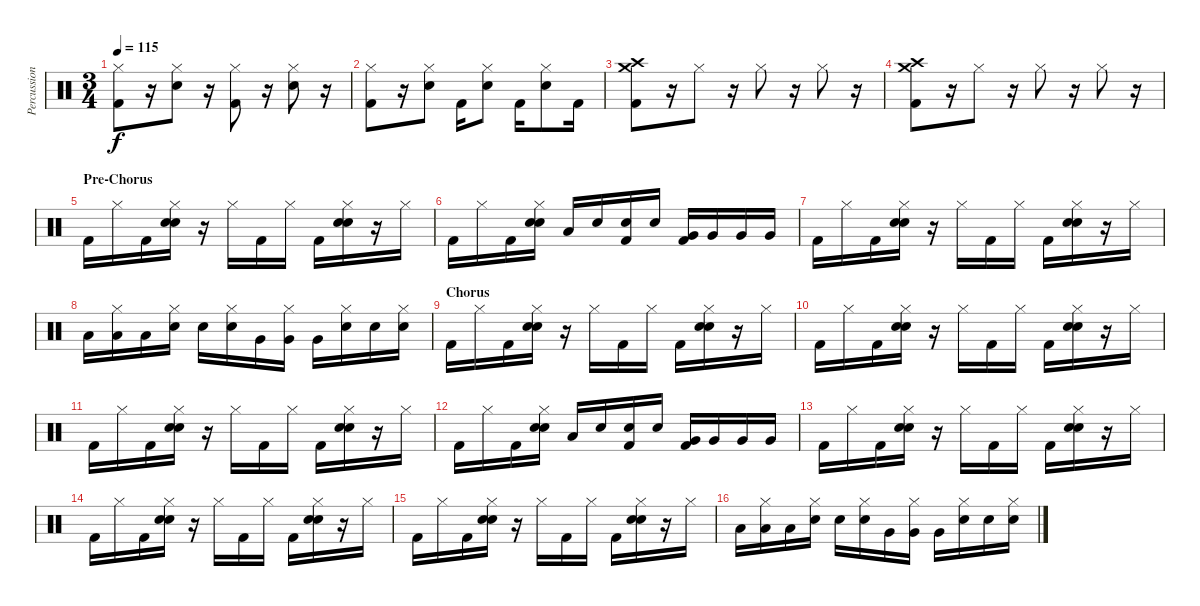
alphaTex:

\track ("Percussion" "Percussion") {instrument percussion}
\staff {score}
\articulation defaults
\ts (3 4)
\tempo 115
\clef neutral
\ks c
("Hi-Hat (closed)" "Kick (hit) 2").8{dy f} r.16 ("Hi-Hat (closed)" "Snare (hit) 2").8 r.16 ("Hi-Hat (closed)" "Kick (hit) 2").8 r.16 ("Hi-Hat (closed)" "Snare (hit) 2").8 r.16 |
("Hi-Hat (closed)" "Kick (hit) 2").8 r.16 ("Hi-Hat (closed)" "Snare (hit) 2").8 "Kick (hit) 2".16 ("Hi-Hat (closed)" "Snare (hit) 2").8 "Kick (hit) 2".16 ("Hi-Hat (closed)" "Snare (hit) 2").8 "Kick (hit) 2".16 |
("Crash medium (hit)" "Crash high (hit)" "Kick (hit) 2").8 r.16 "Hi-Hat (closed)".8 r.16 "Hi-Hat (closed)".8 r.16 "Hi-Hat (closed)".8 r.16 |
("Crash medium (hit)" "Crash high (hit)" "Kick (hit) 2").8 r.16 "Hi-Hat (closed)".8 r.16 "Hi-Hat (closed)".8 r.16 "Hi-Hat (closed)".8 r.16 |
\section ("" "Pre-Chorus")
"Kick (hit) 2".16 "Hi-Hat (closed)".16 "Kick (hit) 2".16 ("Hi-Hat (closed)" "Snare (hit) 2" "Snare (hit) 2").16 r.16 "Hi-Hat (closed)".16 "Kick (hit) 2".16 "Hi-Hat (closed)".16 "Kick (hit) 2".16 ("Hi-Hat (closed)" "Snare (hit) 2" "Snare (hit) 2").16 r.16 "Hi-Hat (closed)".16 |
"Kick (hit) 2".16 "Hi-Hat (closed)".16 "Kick (hit) 2".16 ("Hi-Hat (closed)" "Snare (hit) 2" "Snare (hit) 2").16 "Low Tom (hit)".16 "Snare (hit) 2".16 ("Snare (hit) 2" "Kick (hit) 2").16 "Snare (hit) 2".16 ("Very Low Tom (hit)" "Kick (hit) 2").16 "Very Low Tom (hit)".16 "Very Low Tom (hit)".16 "Very Low Tom (hit)".16 |
"Kick (hit) 2".16 "Hi-Hat (closed)".16 "Kick (hit) 2".16 ("Hi-Hat (closed)" "Snare (hit) 2" "Snare (hit) 2").16 r.16 "Hi-Hat (closed)".16 "Kick (hit) 2".16 "Hi-Hat (closed)".16 "Kick (hit) 2".16 ("Hi-Hat (closed)" "Snare (hit) 2" "Snare (hit) 2").16 r.16 "Hi-Hat (closed)".16 |
"Low Tom (hit)".16 ("Hi-Hat (closed)" "Low Tom (hit)").16 "Low Tom (hit)".16 ("Hi-Hat (closed)" "Snare (hit) 2").16 "Snare (hit) 2".16 ("Hi-Hat (closed)" "Snare (hit) 2").16 "Very Low Tom (hit)".16 ("Hi-Hat (closed)" "Very Low Tom (hit)").16 "Very Low Tom (hit)".16 ("Hi-Hat (closed)" "Snare (hit) 2").16 "Snare (hit) 2".16 ("Hi-Hat (closed)" "Snare (hit) 2").16 |
\section ("" "Chorus")
"Kick (hit) 2".16 "Hi-Hat (closed)".16 "Kick (hit) 2".16 ("Hi-Hat (closed)" "Snare (hit) 2" "Snare (hit) 2").16 r.16 "Hi-Hat (closed)".16 "Kick (hit) 2".16 "Hi-Hat (closed)".16 "Kick (hit) 2".16 ("Hi-Hat (closed)" "Snare (hit) 2" "Snare (hit) 2").16 r.16 "Hi-Hat (closed)".16 |
"Kick (hit) 2".16 "Hi-Hat (closed)".16 "Kick (hit) 2".16 ("Hi-Hat (closed)" "Snare (hit) 2" "Snare (hit) 2").16 r.16 "Hi-Hat (closed)".16 "Kick (hit) 2".16 "Hi-Hat (closed)".16 "Kick (hit) 2".16 ("Hi-Hat (closed)" "Snare (hit) 2" "Snare (hit) 2").16 r.16 "Hi-Hat (closed)".16 |
"Kick (hit) 2".16 "Hi-Hat (closed)".16 "Kick (hit) 2".16 ("Hi-Hat (closed)" "Snare (hit) 2" "Snare (hit) 2").16 r.16 "Hi-Hat (closed)".16 "Kick (hit) 2".16 "Hi-Hat (closed)".16 "Kick (hit) 2".16 ("Hi-Hat (closed)" "Snare (hit) 2" "Snare (hit) 2").16 r.16 "Hi-Hat (closed)".16 |
"Kick (hit) 2".16 "Hi-Hat (closed)".16 "Kick (hit) 2".16 ("Hi-Hat (closed)" "Snare (hit) 2" "Snare (hit) 2").16 "Low Tom (hit)".16 "Snare (hit) 2".16 ("Snare (hit) 2" "Kick (hit) 2").16 "Snare (hit) 2".16 ("Very Low Tom (hit)" "Kick (hit) 2").16 "Very Low Tom (hit)".16 "Very Low Tom (hit)".16 "Very Low Tom (hit)".16 |
"Kick (hit) 2".16 "Hi-Hat (closed)".16 "Kick (hit) 2".16 ("Hi-Hat (closed)" "Snare (hit) 2" "Snare (hit) 2").16 r.16 "Hi-Hat (closed)".16 "Kick (hit) 2".16 "Hi-Hat (closed)".16 "Kick (hit) 2".16 ("Hi-Hat (closed)" "Snare (hit) 2" "Snare (hit) 2").16 r.16 "Hi-Hat (closed)".16 |
"Kick (hit) 2".16 "Hi-Hat (closed)".16 "Kick (hit) 2".16 ("Hi-Hat (closed)" "Snare (hit) 2" "Snare (hit) 2").16 r.16 "Hi-Hat (closed)".16 "Kick (hit) 2".16 "Hi-Hat (closed)".16 "Kick (hit) 2".16 ("Hi-Hat (closed)" "Snare (hit) 2" "Snare (hit) 2").16 r.16 "Hi-Hat (closed)".16 |
"Kick (hit) 2".16 "Hi-Hat (closed)".16 "Kick (hit) 2".16 ("Hi-Hat (closed)" "Snare (hit) 2" "Snare (hit) 2").16 r.16 "Hi-Hat (closed)".16 "Kick (hit) 2".16 "Hi-Hat (closed)".16 "Kick (hit) 2".16 ("Hi-Hat (closed)" "Snare (hit) 2" "Snare (hit) 2").16 r.16 "Hi-Hat (closed)".16 |
"Low Tom (hit)".16 ("Hi-Hat (closed)" "Low Tom (hit)").16 "Low Tom (hit)".16 ("Hi-Hat (closed)" "Snare (hit) 2").16 "Snare (hit) 2".16 ("Hi-Hat (closed)" "Snare (hit) 2").16 "Very Low Tom (hit)".16 ("Hi-Hat (closed)" "Very Low Tom (hit)").16 "Very Low Tom (hit)".16 ("Hi-Hat (closed)" "Snare (hit) 2").16 "Snare (hit) 2".16 ("Hi-Hat (closed)" "Snare (hit) 2").16
